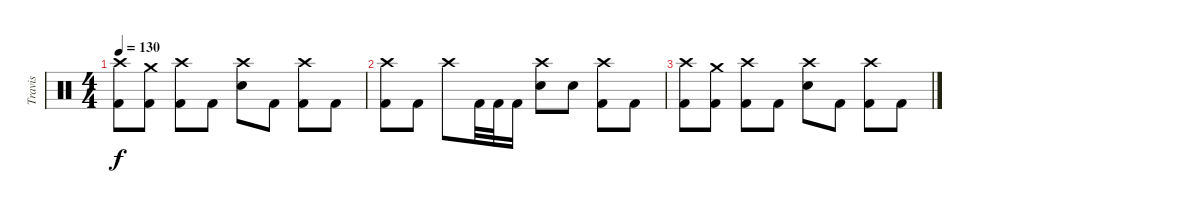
\track ("Travis" "Travis") {instrument percussion}
\staff {score}
\articulation defaults
\ts (4 4)
\tempo 130
\clef neutral
\ks c
("Crash high (hit)" "Kick (hit) 2").8{dy f} ("Crash medium (hit)" "Kick (hit) 2").8 ("Crash high (hit)" "Kick (hit) 2").8 "Kick (hit) 2".8 ("Crash high (hit)" "Snare (hit) 2").8 "Kick (hit) 2".8 ("Crash high (hit)" "Kick (hit) 2").8 "Kick (hit) 2".8 |
("Crash high (hit)" "Kick (hit) 2").8 "Kick (hit) 2".8 "Crash high (hit)".8 "Kick (hit) 2".32 "Kick (hit) 2".32 "Kick (hit) 2".16 ("Crash high (hit)" "Snare (hit) 2").8 "Snare (hit) 2".8 ("Crash high (hit)" "Kick (hit) 2").8 "Kick (hit) 2".8 |
("Crash high (hit)" "Kick (hit) 2").8 ("Crash medium (hit)" "Kick (hit) 2").8 ("Crash high (hit)" "Kick (hit) 2").8 "Kick (hit) 2".8 ("Crash high (hit)" "Snare (hit) 2").8 "Kick (hit) 2".8 ("Crash high (hit)" "Kick (hit) 2").8 "Kick (hit) 2".8
